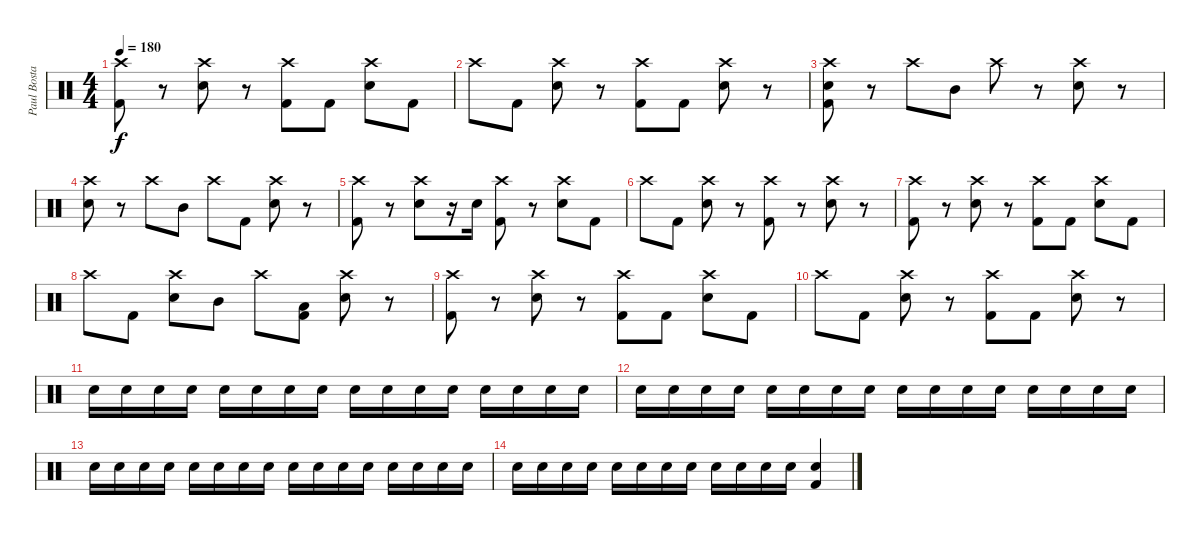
\track ("Paul Bostaph" "Paul Bosta") {instrument percussion}
\staff {score}
\articulation defaults
\ts (4 4)
\tempo 180
\clef neutral
\ks c
("Crash high (hit)" "Kick (hit) 2").8{dy f} r.8 ("Crash high (hit)" "Electric Snare (hit)").8 r.8 ("Crash high (hit)" "Kick (hit) 2").8 "Kick (hit) 2".8 ("Crash high (hit)" "Electric Snare (hit)").8 "Kick (hit) 2".8 |
"Crash high (hit)".8 "Kick (hit) 2".8 ("Crash high (hit)" "Electric Snare (hit)").8 r.8 ("Crash high (hit)" "Kick (hit) 2").8 "Kick (hit) 2".8 ("Crash high (hit)" "Electric Snare (hit)").8 r.8 |
("Crash high (hit)" "Electric Snare (hit)" "Kick (hit) 2").8 r.8 "Crash high (hit)".8 "Mid Tom (hit)".8 "Crash high (hit)".8 r.8 ("Crash high (hit)" "Electric Snare (hit)").8 r.8 |
("Crash high (hit)" "Electric Snare (hit)").8 r.8 "Crash high (hit)".8 "Mid Tom (hit)".8 "Crash high (hit)".8 "Kick (hit) 2".8 ("Crash high (hit)" "Electric Snare (hit)").8 r.8 |
("Crash high (hit)" "Kick (hit) 2").8 r.8 ("Crash high (hit)" "Electric Snare (hit)").8 r.16 "Electric Snare (hit)".16 ("Crash high (hit)" "Kick (hit) 2").8 r.8 ("Crash high (hit)" "Electric Snare (hit)").8 "Kick (hit) 2".8 |
"Crash high (hit)".8 "Kick (hit) 2".8 ("Crash high (hit)" "Electric Snare (hit)").8 r.8 ("Crash high (hit)" "Kick (hit) 2").8 r.8 ("Crash high (hit)" "Electric Snare (hit)").8 r.8 |
("Crash high (hit)" "Kick (hit) 2").8 r.8 ("Crash high (hit)" "Electric Snare (hit)").8 r.8 ("Crash high (hit)" "Kick (hit) 2").8 "Kick (hit) 2".8 ("Crash high (hit)" "Electric Snare (hit)").8 "Kick (hit) 2".8 |
"Crash high (hit)".8 "Kick (hit) 2".8 ("Crash high (hit)" "Electric Snare (hit)").8 "Mid Tom (hit)".8 "Crash high (hit)".8 ("Low Floor Tom (hit)" "Kick (hit) 2").8 ("Crash high (hit)" "Electric Snare (hit)").8 r.8 |
("Crash high (hit)" "Kick (hit) 2").8 r.8 ("Crash high (hit)" "Electric Snare (hit)").8 r.8 ("Crash high (hit)" "Kick (hit) 2").8 "Kick (hit) 2".8 ("Crash high (hit)" "Electric Snare (hit)").8 "Kick (hit) 2".8 |
"Crash high (hit)".8 "Kick (hit) 2".8 ("Crash high (hit)" "Electric Snare (hit)").8 r.8 ("Crash high (hit)" "Kick (hit) 2").8 "Kick (hit) 2".8 ("Crash high (hit)" "Electric Snare (hit)").8 r.8 |
"Electric Snare (hit)".16{volume 8} "Electric Snare (hit)".16{volume 16} "Electric Snare (hit)".16 "Electric Snare (hit)".16 "Electric Snare (hit)".16 "Electric Snare (hit)".16 "Electric Snare (hit)".16 "Electric Snare (hit)".16 "Electric Snare (hit)".16 "Electric Snare (hit)".16 "Electric Snare (hit)".16 "Electric Snare (hit)".16 "Electric Snare (hit)".16 "Electric Snare (hit)".16 "Electric Snare (hit)".16 "Electric Snare (hit)".16 |
"Electric Snare (hit)".16 "Electric Snare (hit)".16 "Electric Snare (hit)".16 "Electric Snare (hit)".16 "Electric Snare (hit)".16 "Electric Snare (hit)".16 "Electric Snare (hit)".16 "Electric Snare (hit)".16 "Electric Snare (hit)".16 "Electric Snare (hit)".16 "Electric Snare (hit)".16 "Electric Snare (hit)".16 "Electric Snare (hit)".16 "Electric Snare (hit)".16 "Electric Snare (hit)".16 "Electric Snare (hit)".16 |
"Electric Snare (hit)".16 "Electric Snare (hit)".16 "Electric Snare (hit)".16 "Electric Snare (hit)".16 "Electric Snare (hit)".16 "Electric Snare (hit)".16 "Electric Snare (hit)".16 "Electric Snare (hit)".16 "Electric Snare (hit)".16 "Electric Snare (hit)".16 "Electric Snare (hit)".16 "Electric Snare (hit)".16 "Electric Snare (hit)".16 "Electric Snare (hit)".16 "Electric Snare (hit)".16 "Electric Snare (hit)".16 |
"Electric Snare (hit)".16 "Electric Snare (hit)".16 "Electric Snare (hit)".16 "Electric Snare (hit)".16 "Electric Snare (hit)".16 "Electric Snare (hit)".16 "Electric Snare (hit)".16 "Electric Snare (hit)".16 "Electric Snare (hit)".16 "Electric Snare (hit)".16 "Electric Snare (hit)".16 "Electric Snare (hit)".16 ("Electric Snare (hit)" "Kick (hit) 2").4
